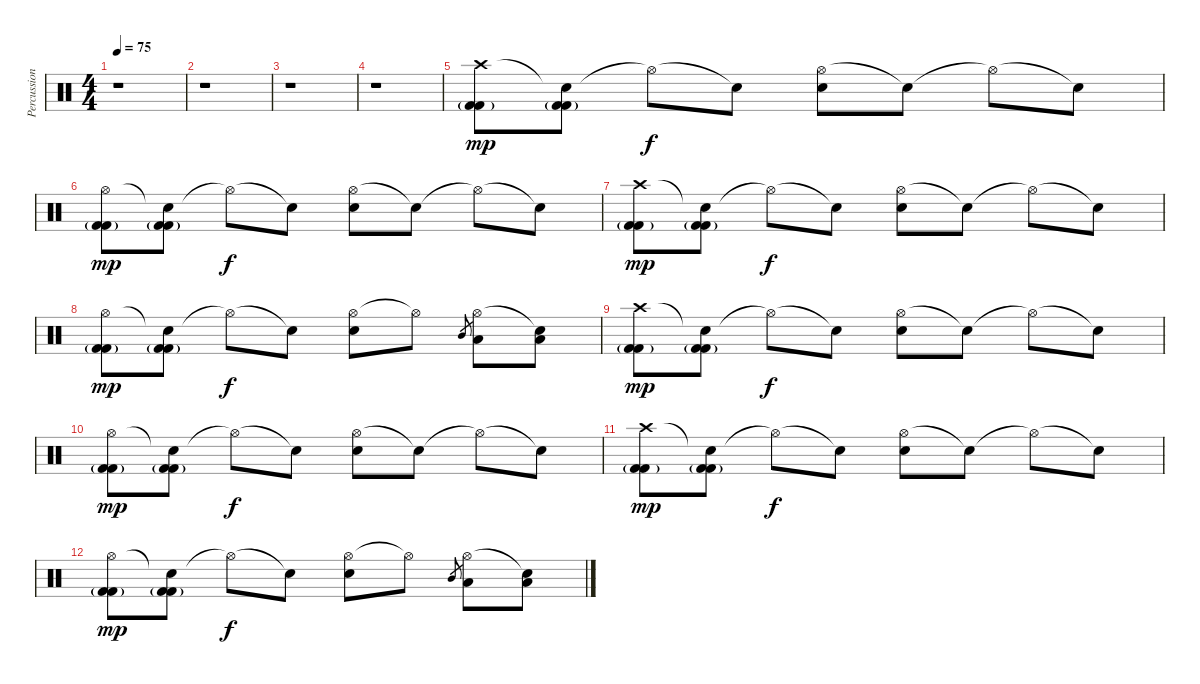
\track ("Percussion" "Percussion") {instrument percussion}
\staff {score}
\articulation defaults
\ts (4 4)
\tempo 75
\clef neutral
\ks c
r.1{dy mp} |
r.1 |
r.1 |
r.1 |
("Crash high (hit)" "Kick (hit) 2"{g} "Kick (hit) 2").8 ("Snare (hit)"{t} "Kick (hit) 2"{g} "Kick (hit) 2").8 "Hi-Hat (open)"{t}.8{dy f} "Snare (hit)"{t}.8 ("Hi-Hat (open)" "Electric Snare (hit)").8 "Snare (hit)"{t}.8 "Hi-Hat (open)"{t}.8 "Snare (hit)"{t}.8 |
("Hi-Hat (open)" "Kick (hit) 2"{g} "Kick (hit) 2").8{dy mp} ("Snare (hit)"{t} "Kick (hit) 2"{g} "Kick (hit) 2").8 "Hi-Hat (open)"{t}.8{dy f} "Snare (hit)"{t}.8 ("Hi-Hat (open)" "Electric Snare (hit)").8 "Snare (hit)"{t}.8 "Hi-Hat (open)"{t}.8 "Snare (hit)"{t}.8 |
("Crash high (hit)" "Kick (hit) 2"{g} "Kick (hit) 2").8{dy mp} ("Snare (hit)"{t} "Kick (hit) 2"{g} "Kick (hit) 2").8 "Hi-Hat (open)"{t}.8{dy f} "Snare (hit)"{t}.8 ("Hi-Hat (open)" "Electric Snare (hit)").8 "Snare (hit)"{t}.8 "Hi-Hat (open)"{t}.8 "Snare (hit)"{t}.8 |
("Hi-Hat (open)" "Kick (hit) 2"{g} "Kick (hit) 2").8{dy mp} ("Snare (hit)"{t} "Kick (hit) 2"{g} "Kick (hit) 2").8 "Hi-Hat (open)"{t}.8{dy f} "Snare (hit)"{t}.8 ("Hi-Hat (open)" "Electric Snare (hit)").8 "Hi-Hat (open)"{t}.8 "Mid Tom (hit)".8{gr} ("Hi-Hat (open)" "Low Tom (hit)").8 ("Snare (hit)"{t} "Low Tom (hit)").8 |
("Crash high (hit)" "Kick (hit) 2"{g} "Kick (hit) 2").8{dy mp} ("Snare (hit)"{t} "Kick (hit) 2"{g} "Kick (hit) 2").8 "Hi-Hat (open)"{t}.8{dy f} "Snare (hit)"{t}.8 ("Hi-Hat (open)" "Electric Snare (hit)").8 "Snare (hit)"{t}.8 "Hi-Hat (open)"{t}.8 "Snare (hit)"{t}.8 |
("Hi-Hat (open)" "Kick (hit) 2"{g} "Kick (hit) 2").8{dy mp} ("Snare (hit)"{t} "Kick (hit) 2"{g} "Kick (hit) 2").8 "Hi-Hat (open)"{t}.8{dy f} "Snare (hit)"{t}.8 ("Hi-Hat (open)" "Electric Snare (hit)").8 "Snare (hit)"{t}.8 "Hi-Hat (open)"{t}.8 "Snare (hit)"{t}.8 |
("Crash high (hit)" "Kick (hit) 2"{g} "Kick (hit) 2").8{dy mp} ("Snare (hit)"{t} "Kick (hit) 2"{g} "Kick (hit) 2").8 "Hi-Hat (open)"{t}.8{dy f} "Snare (hit)"{t}.8 ("Hi-Hat (open)" "Electric Snare (hit)").8 "Snare (hit)"{t}.8 "Hi-Hat (open)"{t}.8 "Snare (hit)"{t}.8 |
("Hi-Hat (open)" "Kick (hit) 2"{g} "Kick (hit) 2").8{dy mp} ("Snare (hit)"{t} "Kick (hit) 2"{g} "Kick (hit) 2").8 "Hi-Hat (open)"{t}.8{dy f} "Snare (hit)"{t}.8 ("Hi-Hat (open)" "Electric Snare (hit)").8 "Hi-Hat (open)"{t}.8 "Mid Tom (hit)".8{gr} ("Hi-Hat (open)" "Low Tom (hit)").8 ("Snare (hit)"{t} "Low Tom (hit)").8
